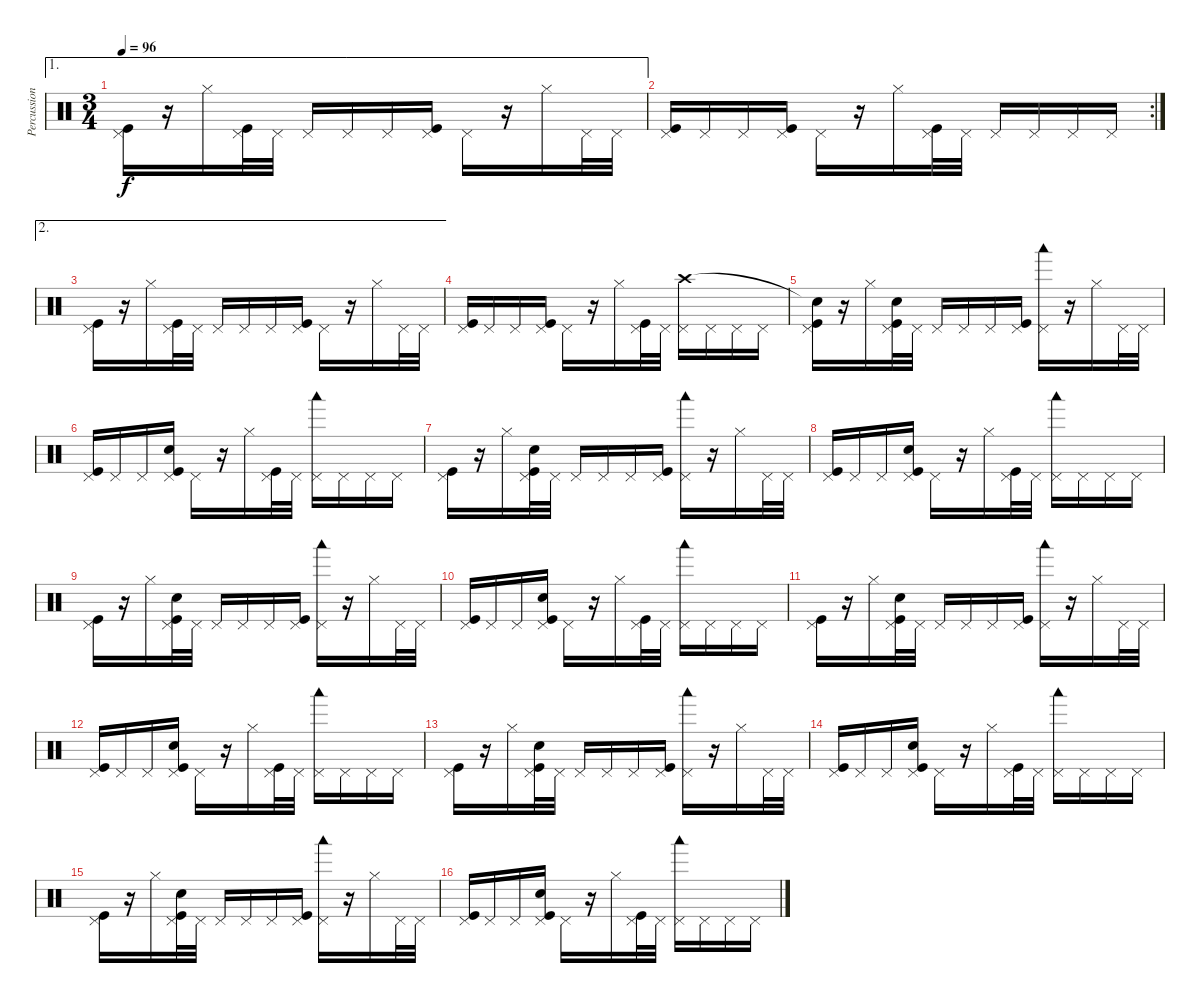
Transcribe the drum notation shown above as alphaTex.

\track ("Percussions" "Percussion") {instrument percussion}
\staff {score}
\articulation defaults
\ae 1
\ts (3 4)
\tempo 96
\clef neutral
\ks c
("Pedal Hi-Hat (hit)" "Kick (hit)").16{dy f} r.16 "Hi-Hat (closed)".16 ("Pedal Hi-Hat (hit)" "Kick (hit)").32 "Pedal Hi-Hat (hit)".32 "Pedal Hi-Hat (hit)".16 "Pedal Hi-Hat (hit)".16 "Pedal Hi-Hat (hit)".16 ("Pedal Hi-Hat (hit)" "Kick (hit)").16 "Pedal Hi-Hat (hit)".16 r.16 "Hi-Hat (closed)".16 "Pedal Hi-Hat (hit)".32 "Pedal Hi-Hat (hit)".32 |
\rc 2
("Pedal Hi-Hat (hit)" "Kick (hit)").16 "Pedal Hi-Hat (hit)".16 "Pedal Hi-Hat (hit)".16 ("Pedal Hi-Hat (hit)" "Kick (hit)").16 "Pedal Hi-Hat (hit)".16 r.16 "Hi-Hat (closed)".16 ("Pedal Hi-Hat (hit)" "Kick (hit)").32 "Pedal Hi-Hat (hit)".32 "Pedal Hi-Hat (hit)".16 "Pedal Hi-Hat (hit)".16 "Pedal Hi-Hat (hit)".16 "Pedal Hi-Hat (hit)".16 |
\ae 2
("Pedal Hi-Hat (hit)" "Kick (hit)").16 r.16 "Hi-Hat (closed)".16 ("Pedal Hi-Hat (hit)" "Kick (hit)").32 "Pedal Hi-Hat (hit)".32 "Pedal Hi-Hat (hit)".16 "Pedal Hi-Hat (hit)".16 "Pedal Hi-Hat (hit)".16 ("Pedal Hi-Hat (hit)" "Kick (hit)").16 "Pedal Hi-Hat (hit)".16 r.16 "Hi-Hat (closed)".16 "Pedal Hi-Hat (hit)".32 "Pedal Hi-Hat (hit)".32 |
("Pedal Hi-Hat (hit)" "Kick (hit)").16 "Pedal Hi-Hat (hit)".16 "Pedal Hi-Hat (hit)".16 ("Pedal Hi-Hat (hit)" "Kick (hit)").16 "Pedal Hi-Hat (hit)".16 r.16 "Hi-Hat (closed)".16 ("Pedal Hi-Hat (hit)" "Kick (hit)").32 "Pedal Hi-Hat (hit)".32 ("Pedal Hi-Hat (hit)" "Crash high (hit)").16 "Pedal Hi-Hat (hit)".16 "Pedal Hi-Hat (hit)".16 "Pedal Hi-Hat (hit)".16 |
("Pedal Hi-Hat (hit)" "Snare (hit)"{t} "Kick (hit)").16 r.16 "Hi-Hat (closed)".16 ("Pedal Hi-Hat (hit)" "Metronome (bell)" "Kick (hit)").32 "Pedal Hi-Hat (hit)".32 "Pedal Hi-Hat (hit)".16 "Pedal Hi-Hat (hit)".16 "Pedal Hi-Hat (hit)".16 ("Pedal Hi-Hat (hit)" "Kick (hit)").16 ("Pedal Hi-Hat (hit)" "Woodblock low (hit)").16 r.16 "Hi-Hat (closed)".16 "Pedal Hi-Hat (hit)".32 "Pedal Hi-Hat (hit)".32 |
("Pedal Hi-Hat (hit)" "Kick (hit)").16 "Pedal Hi-Hat (hit)".16 "Pedal Hi-Hat (hit)".16 ("Pedal Hi-Hat (hit)" "Metronome (bell)" "Kick (hit)").16 "Pedal Hi-Hat (hit)".16 r.16 "Hi-Hat (closed)".16 ("Pedal Hi-Hat (hit)" "Kick (hit)").32 "Pedal Hi-Hat (hit)".32 ("Pedal Hi-Hat (hit)" "Woodblock low (hit)").16 "Pedal Hi-Hat (hit)".16 "Pedal Hi-Hat (hit)".16 "Pedal Hi-Hat (hit)".16 |
("Pedal Hi-Hat (hit)" "Kick (hit)").16 r.16 "Hi-Hat (closed)".16 ("Pedal Hi-Hat (hit)" "Metronome (bell)" "Kick (hit)").32 "Pedal Hi-Hat (hit)".32 "Pedal Hi-Hat (hit)".16 "Pedal Hi-Hat (hit)".16 "Pedal Hi-Hat (hit)".16 ("Pedal Hi-Hat (hit)" "Kick (hit)").16 ("Pedal Hi-Hat (hit)" "Woodblock low (hit)").16 r.16 "Hi-Hat (closed)".16 "Pedal Hi-Hat (hit)".32 "Pedal Hi-Hat (hit)".32 |
("Pedal Hi-Hat (hit)" "Kick (hit)").16 "Pedal Hi-Hat (hit)".16 "Pedal Hi-Hat (hit)".16 ("Pedal Hi-Hat (hit)" "Metronome (bell)" "Kick (hit)").16 "Pedal Hi-Hat (hit)".16 r.16 "Hi-Hat (closed)".16 ("Pedal Hi-Hat (hit)" "Kick (hit)").32 "Pedal Hi-Hat (hit)".32 ("Pedal Hi-Hat (hit)" "Woodblock low (hit)").16 "Pedal Hi-Hat (hit)".16 "Pedal Hi-Hat (hit)".16 "Pedal Hi-Hat (hit)".16 |
("Pedal Hi-Hat (hit)" "Kick (hit)").16 r.16 "Hi-Hat (closed)".16 ("Pedal Hi-Hat (hit)" "Metronome (bell)" "Kick (hit)").32 "Pedal Hi-Hat (hit)".32 "Pedal Hi-Hat (hit)".16 "Pedal Hi-Hat (hit)".16 "Pedal Hi-Hat (hit)".16 ("Pedal Hi-Hat (hit)" "Kick (hit)").16 ("Pedal Hi-Hat (hit)" "Woodblock low (hit)").16 r.16 "Hi-Hat (closed)".16 "Pedal Hi-Hat (hit)".32 "Pedal Hi-Hat (hit)".32 |
("Pedal Hi-Hat (hit)" "Kick (hit)").16 "Pedal Hi-Hat (hit)".16 "Pedal Hi-Hat (hit)".16 ("Pedal Hi-Hat (hit)" "Metronome (bell)" "Kick (hit)").16 "Pedal Hi-Hat (hit)".16 r.16 "Hi-Hat (closed)".16 ("Pedal Hi-Hat (hit)" "Kick (hit)").32 "Pedal Hi-Hat (hit)".32 ("Pedal Hi-Hat (hit)" "Woodblock low (hit)").16 "Pedal Hi-Hat (hit)".16 "Pedal Hi-Hat (hit)".16 "Pedal Hi-Hat (hit)".16 |
("Pedal Hi-Hat (hit)" "Kick (hit)").16 r.16 "Hi-Hat (closed)".16 ("Pedal Hi-Hat (hit)" "Metronome (bell)" "Kick (hit)").32 "Pedal Hi-Hat (hit)".32 "Pedal Hi-Hat (hit)".16 "Pedal Hi-Hat (hit)".16 "Pedal Hi-Hat (hit)".16 ("Pedal Hi-Hat (hit)" "Kick (hit)").16 ("Pedal Hi-Hat (hit)" "Woodblock low (hit)").16 r.16 "Hi-Hat (closed)".16 "Pedal Hi-Hat (hit)".32 "Pedal Hi-Hat (hit)".32 |
("Pedal Hi-Hat (hit)" "Kick (hit)").16 "Pedal Hi-Hat (hit)".16 "Pedal Hi-Hat (hit)".16 ("Pedal Hi-Hat (hit)" "Metronome (bell)" "Kick (hit)").16 "Pedal Hi-Hat (hit)".16 r.16 "Hi-Hat (closed)".16 ("Pedal Hi-Hat (hit)" "Kick (hit)").32 "Pedal Hi-Hat (hit)".32 ("Pedal Hi-Hat (hit)" "Woodblock low (hit)").16 "Pedal Hi-Hat (hit)".16 "Pedal Hi-Hat (hit)".16 "Pedal Hi-Hat (hit)".16 |
("Pedal Hi-Hat (hit)" "Kick (hit)").16 r.16 "Hi-Hat (closed)".16 ("Pedal Hi-Hat (hit)" "Metronome (bell)" "Kick (hit)").32 "Pedal Hi-Hat (hit)".32 "Pedal Hi-Hat (hit)".16 "Pedal Hi-Hat (hit)".16 "Pedal Hi-Hat (hit)".16 ("Pedal Hi-Hat (hit)" "Kick (hit)").16 ("Pedal Hi-Hat (hit)" "Woodblock low (hit)").16 r.16 "Hi-Hat (closed)".16 "Pedal Hi-Hat (hit)".32 "Pedal Hi-Hat (hit)".32 |
("Pedal Hi-Hat (hit)" "Kick (hit)").16 "Pedal Hi-Hat (hit)".16 "Pedal Hi-Hat (hit)".16 ("Pedal Hi-Hat (hit)" "Metronome (bell)" "Kick (hit)").16 "Pedal Hi-Hat (hit)".16 r.16 "Hi-Hat (closed)".16 ("Pedal Hi-Hat (hit)" "Kick (hit)").32 "Pedal Hi-Hat (hit)".32 ("Pedal Hi-Hat (hit)" "Woodblock low (hit)").16 "Pedal Hi-Hat (hit)".16 "Pedal Hi-Hat (hit)".16 "Pedal Hi-Hat (hit)".16 |
("Pedal Hi-Hat (hit)" "Kick (hit)").16 r.16 "Hi-Hat (closed)".16 ("Pedal Hi-Hat (hit)" "Metronome (bell)" "Kick (hit)").32 "Pedal Hi-Hat (hit)".32 "Pedal Hi-Hat (hit)".16 "Pedal Hi-Hat (hit)".16 "Pedal Hi-Hat (hit)".16 ("Pedal Hi-Hat (hit)" "Kick (hit)").16 ("Pedal Hi-Hat (hit)" "Woodblock low (hit)").16 r.16 "Hi-Hat (closed)".16 "Pedal Hi-Hat (hit)".32 "Pedal Hi-Hat (hit)".32 |
("Pedal Hi-Hat (hit)" "Kick (hit)").16 "Pedal Hi-Hat (hit)".16 "Pedal Hi-Hat (hit)".16 ("Pedal Hi-Hat (hit)" "Metronome (bell)" "Kick (hit)").16 "Pedal Hi-Hat (hit)".16 r.16 "Hi-Hat (closed)".16 ("Pedal Hi-Hat (hit)" "Kick (hit)").32 "Pedal Hi-Hat (hit)".32 ("Pedal Hi-Hat (hit)" "Woodblock low (hit)").16 "Pedal Hi-Hat (hit)".16 "Pedal Hi-Hat (hit)".16 "Pedal Hi-Hat (hit)".16
